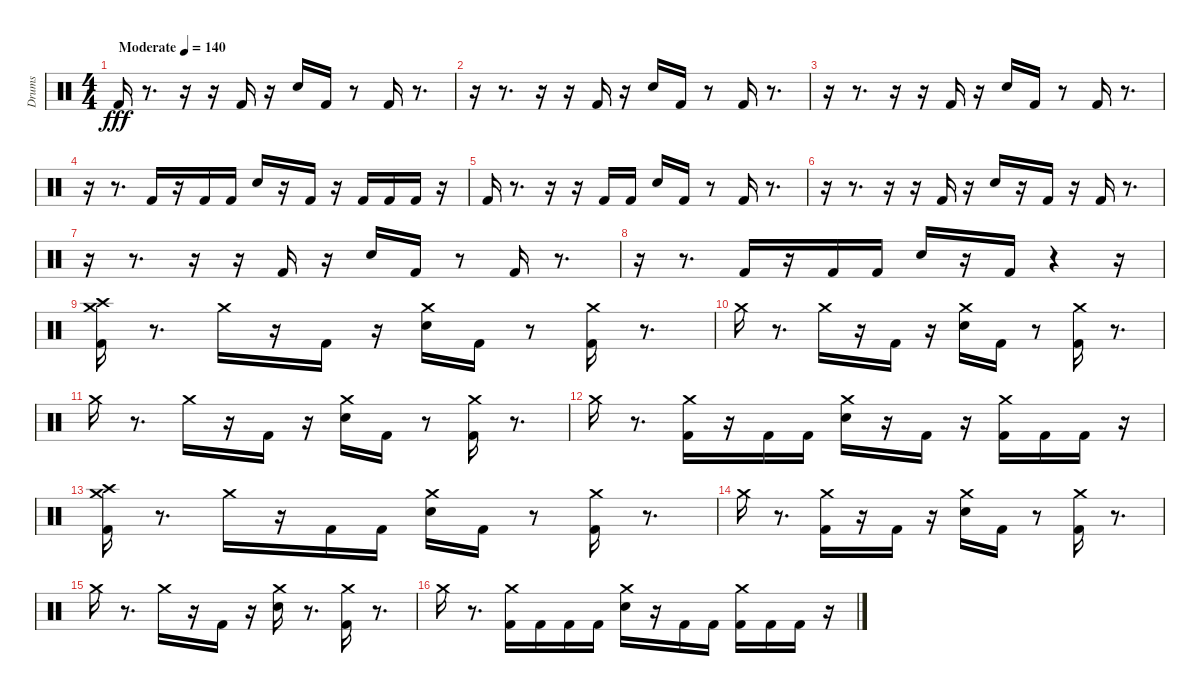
\track ("Drums" "Drums") {instrument percussion}
\staff {score}
\articulation defaults
\ts (4 4)
\tempo (140 "Moderate")
\clef neutral
\ks c "Kick (hit) 2".16{dy fff}
r.8{d} r.16 r.16 "Kick (hit) 2".16 r.16 "Snare (hit) 2".16 "Kick (hit) 2".16 r.8 "Kick (hit) 2".16 r.8{d} |
r.16 r.8{d} r.16 r.16 "Kick (hit) 2".16 r.16 "Snare (hit) 2".16 "Kick (hit) 2".16 r.8 "Kick (hit) 2".16 r.8{d} |
r.16 r.8{d} r.16 r.16 "Kick (hit) 2".16 r.16 "Snare (hit) 2".16 "Kick (hit) 2".16 r.8 "Kick (hit) 2".16 r.8{d} |
r.16 r.8{d} "Kick (hit) 2".16 r.16 "Kick (hit) 2".16 "Kick (hit) 2".16 "Snare (hit) 2".16 r.16 "Kick (hit) 2".16 r.16 "Kick (hit) 2".16 "Kick (hit) 2".16 "Kick (hit) 2".16 r.16 |
"Kick (hit) 2".16 r.8{d} r.16 r.16 "Kick (hit) 2".16 "Kick (hit) 2".16 "Snare (hit) 2".16 "Kick (hit) 2".16 r.8 "Kick (hit) 2".16 r.8{d} |
r.16 r.8{d} r.16 r.16 "Kick (hit) 2".16 r.16 "Snare (hit) 2".16 r.16 "Kick (hit) 2".16 r.16 "Kick (hit) 2".16 r.8{d} |
r.16 r.8{d} r.16 r.16 "Kick (hit) 2".16 r.16 "Snare (hit) 2".16 "Kick (hit) 2".16 r.8 "Kick (hit) 2".16 r.8{d} |
r.16 r.8{d} "Kick (hit) 2".16 r.16 "Kick (hit) 2".16 "Kick (hit) 2".16 "Snare (hit) 2".16 r.16 "Kick (hit) 2".16 r.4 r.16 |
("Crash medium (hit)" "Crash high (hit)" "Kick (hit) 2").16 r.8{d} "Crash medium (hit)".16 r.16 "Kick (hit) 2".16 r.16 ("Crash medium (hit)" "Snare (hit) 2").16 "Kick (hit) 2".16 r.8 ("Crash medium (hit)" "Kick (hit) 2").16 r.8{d} |
"Crash medium (hit)".16 r.8{d} "Crash medium (hit)".16 r.16 "Kick (hit) 2".16 r.16 ("Crash medium (hit)" "Snare (hit) 2").16 "Kick (hit) 2".16 r.8 ("Crash medium (hit)" "Kick (hit) 2").16 r.8{d} |
"Crash medium (hit)".16 r.8{d} "Crash medium (hit)".16 r.16 "Kick (hit) 2".16 r.16 ("Crash medium (hit)" "Snare (hit) 2").16 "Kick (hit) 2".16 r.8 ("Crash medium (hit)" "Kick (hit) 2").16 r.8{d} |
"Crash medium (hit)".16 r.8{d} ("Crash medium (hit)" "Kick (hit) 2").16 r.16 "Kick (hit) 2".16 "Kick (hit) 2".16 ("Crash medium (hit)" "Snare (hit) 2").16 r.16 "Kick (hit) 2".16 r.16 ("Crash medium (hit)" "Kick (hit) 2").16 "Kick (hit) 2".16 "Kick (hit) 2".16 r.16 |
("Crash high (hit)" "Crash medium (hit)" "Kick (hit) 2").16 r.8{d} "Crash medium (hit)".16 r.16 "Kick (hit) 2".16 "Kick (hit) 2".16 ("Crash medium (hit)" "Snare (hit) 2").16 "Kick (hit) 2".16 r.8 ("Crash medium (hit)" "Kick (hit) 2").16 r.8{d} |
"Crash medium (hit)".16 r.8{d} ("Crash medium (hit)" "Kick (hit) 2").16 r.16 "Kick (hit) 2".16 r.16 ("Crash medium (hit)" "Snare (hit) 2").16 "Kick (hit) 2".16 r.8 ("Crash medium (hit)" "Kick (hit) 2").16 r.8{d} |
"Crash medium (hit)".16 r.8{d} "Crash medium (hit)".16 r.16 "Kick (hit) 2".16 r.16 ("Crash medium (hit)" "Snare (hit) 2").16 r.8{d} ("Crash medium (hit)" "Kick (hit) 2").16 r.8{d} |
"Crash medium (hit)".16 r.8{d} ("Crash medium (hit)" "Kick (hit) 2").16 "Kick (hit) 2".16 "Kick (hit) 2".16 "Kick (hit) 2".16 ("Crash medium (hit)" "Snare (hit) 2").16 r.16 "Kick (hit) 2".16 "Kick (hit) 2".16 ("Crash medium (hit)" "Kick (hit) 2").16 "Kick (hit) 2".16 "Kick (hit) 2".16 r.16
